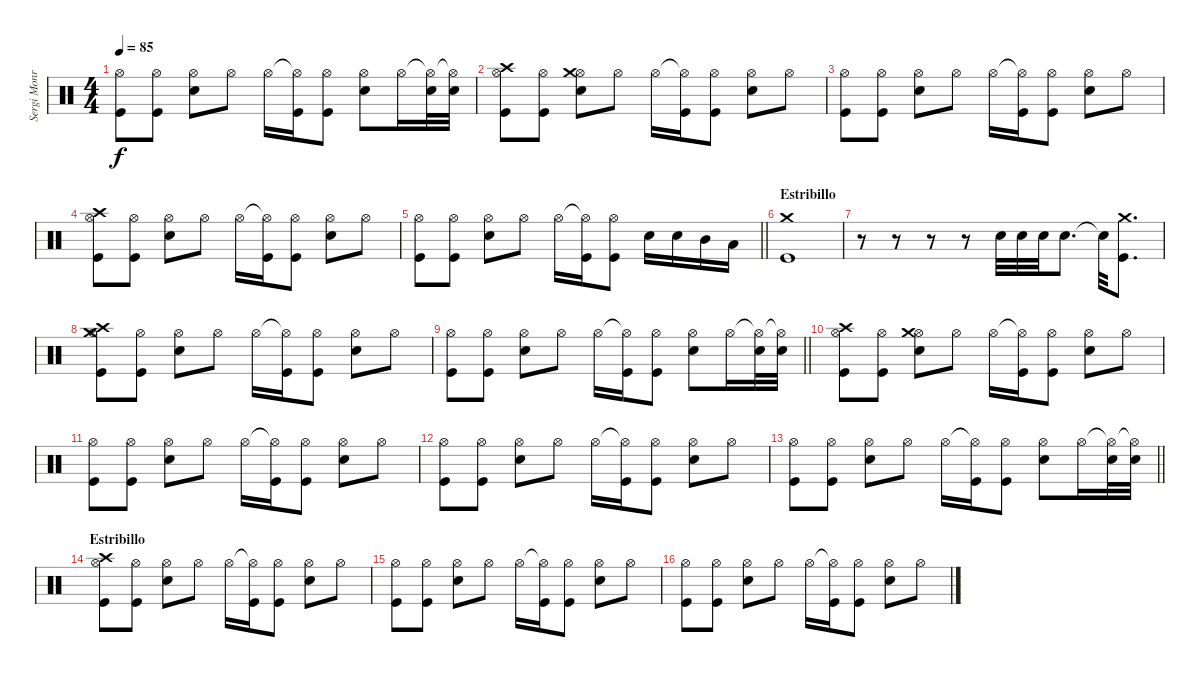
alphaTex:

\track ("Sergi Monroy" "Sergi Monr") {instrument percussion}
\staff {score}
\articulation defaults
\ts (4 4)
\tempo 85
\clef neutral
\ks c
("Hi-Hat (open)" "Kick (hit)").8{dy f} ("Hi-Hat (open)" "Kick (hit)").8 ("Hi-Hat (open)" "Electric Snare (hit)").8 "Hi-Hat (open)".8 "Hi-Hat (open)".16 ("Hi-Hat (open)"{t} "Kick (hit)").16 ("Hi-Hat (open)" "Kick (hit)").8 ("Hi-Hat (open)" "Electric Snare (hit)").8 "Hi-Hat (open)".16 ("Hi-Hat (open)"{t} "Electric Snare (hit)").32 ("Hi-Hat (open)"{t} "Electric Snare (hit)").32 |
("Hi-Hat (open)" "Kick (hit)" "Crash high (hit)").8 ("Hi-Hat (open)" "Kick (hit)").8 ("Hi-Hat (open)" "Electric Snare (hit)" "Crash medium (hit)").8 "Hi-Hat (open)".8 "Hi-Hat (open)".16 ("Hi-Hat (open)"{t} "Kick (hit)").16 ("Hi-Hat (open)" "Kick (hit)").8 ("Hi-Hat (open)" "Electric Snare (hit)").8 "Hi-Hat (open)".8 |
("Hi-Hat (open)" "Kick (hit)").8 ("Hi-Hat (open)" "Kick (hit)").8 ("Hi-Hat (open)" "Electric Snare (hit)").8 "Hi-Hat (open)".8 "Hi-Hat (open)".16 ("Hi-Hat (open)"{t} "Kick (hit)").16 ("Hi-Hat (open)" "Kick (hit)").8 ("Hi-Hat (open)" "Electric Snare (hit)").8 "Hi-Hat (open)".8 |
("Hi-Hat (open)" "Kick (hit)" "Crash high (hit)").8 ("Hi-Hat (open)" "Kick (hit)").8 ("Hi-Hat (open)" "Electric Snare (hit)").8 "Hi-Hat (open)".8 "Hi-Hat (open)".16 ("Hi-Hat (open)"{t} "Kick (hit)").16 ("Hi-Hat (open)" "Kick (hit)").8 ("Hi-Hat (open)" "Electric Snare (hit)").8 "Hi-Hat (open)".8 |
\barLineRight lightlight
("Hi-Hat (open)" "Kick (hit)").8 ("Hi-Hat (open)" "Kick (hit)").8 ("Hi-Hat (open)" "Electric Snare (hit)").8 "Hi-Hat (open)".8 "Hi-Hat (open)".16 ("Hi-Hat (open)"{t} "Kick (hit)").16 ("Hi-Hat (open)" "Kick (hit)").8 "Electric Snare (hit)".16 "Electric Snare (hit)".16 "Mid Tom (hit)".16 "Low Tom (hit)".16 |
\section ("" "Estribillo")
("Kick (hit)" "Crash medium (hit)").1 |
r.8 r.8 r.8 r.8 "Electric Snare (hit)".32 "Electric Snare (hit)".32 "Electric Snare (hit)".32 "Electric Snare (hit)".8{d} "Electric Snare (hit)"{t}.32 ("Kick (hit)" "Crash medium (hit)").8{d} |
("Hi-Hat (open)" "Kick (hit)" "Crash medium (hit)" "Crash high (hit)").8 ("Hi-Hat (open)" "Kick (hit)").8 ("Hi-Hat (open)" "Electric Snare (hit)").8 "Hi-Hat (open)".8 "Hi-Hat (open)".16 ("Hi-Hat (open)"{t} "Kick (hit)").16 ("Hi-Hat (open)" "Kick (hit)").8 ("Hi-Hat (open)" "Electric Snare (hit)").8 "Hi-Hat (open)".8 |
\barLineRight lightlight
("Hi-Hat (open)" "Kick (hit)").8 ("Hi-Hat (open)" "Kick (hit)").8 ("Hi-Hat (open)" "Electric Snare (hit)").8 "Hi-Hat (open)".8 "Hi-Hat (open)".16 ("Hi-Hat (open)"{t} "Kick (hit)").16 ("Hi-Hat (open)" "Kick (hit)").8 ("Hi-Hat (open)" "Electric Snare (hit)").8 "Hi-Hat (open)".16 ("Hi-Hat (open)"{t} "Electric Snare (hit)").32 ("Hi-Hat (open)"{t} "Electric Snare (hit)").32 |
("Hi-Hat (open)" "Kick (hit)" "Crash high (hit)").8 ("Hi-Hat (open)" "Kick (hit)").8 ("Hi-Hat (open)" "Electric Snare (hit)" "Crash medium (hit)").8 "Hi-Hat (open)".8 "Hi-Hat (open)".16 ("Hi-Hat (open)"{t} "Kick (hit)").16 ("Hi-Hat (open)" "Kick (hit)").8 ("Hi-Hat (open)" "Electric Snare (hit)").8 "Hi-Hat (open)".8 |
("Hi-Hat (open)" "Kick (hit)").8 ("Hi-Hat (open)" "Kick (hit)").8 ("Hi-Hat (open)" "Electric Snare (hit)").8 "Hi-Hat (open)".8 "Hi-Hat (open)".16 ("Hi-Hat (open)"{t} "Kick (hit)").16 ("Hi-Hat (open)" "Kick (hit)").8 ("Hi-Hat (open)" "Electric Snare (hit)").8 "Hi-Hat (open)".8 |
("Hi-Hat (open)" "Kick (hit)").8 ("Hi-Hat (open)" "Kick (hit)").8 ("Hi-Hat (open)" "Electric Snare (hit)").8 "Hi-Hat (open)".8 "Hi-Hat (open)".16 ("Hi-Hat (open)"{t} "Kick (hit)").16 ("Hi-Hat (open)" "Kick (hit)").8 ("Hi-Hat (open)" "Electric Snare (hit)").8 "Hi-Hat (open)".8 |
\barLineRight lightlight
("Hi-Hat (open)" "Kick (hit)").8 ("Hi-Hat (open)" "Kick (hit)").8 ("Hi-Hat (open)" "Electric Snare (hit)").8 "Hi-Hat (open)".8 "Hi-Hat (open)".16 ("Hi-Hat (open)"{t} "Kick (hit)").16 ("Hi-Hat (open)" "Kick (hit)").8 ("Hi-Hat (open)" "Electric Snare (hit)").8 "Hi-Hat (open)".16 ("Hi-Hat (open)"{t} "Electric Snare (hit)").32 ("Hi-Hat (open)"{t} "Electric Snare (hit)").32 |
\section ("" "Estribillo")
("Hi-Hat (open)" "Kick (hit)" "Crash high (hit)").8 ("Hi-Hat (open)" "Kick (hit)").8 ("Hi-Hat (open)" "Electric Snare (hit)").8 "Hi-Hat (open)".8 "Hi-Hat (open)".16 ("Hi-Hat (open)"{t} "Kick (hit)").16 ("Hi-Hat (open)" "Kick (hit)").8 ("Hi-Hat (open)" "Electric Snare (hit)").8 "Hi-Hat (open)".8 |
("Hi-Hat (open)" "Kick (hit)").8 ("Hi-Hat (open)" "Kick (hit)").8 ("Hi-Hat (open)" "Electric Snare (hit)").8 "Hi-Hat (open)".8 "Hi-Hat (open)".16 ("Hi-Hat (open)"{t} "Kick (hit)").16 ("Hi-Hat (open)" "Kick (hit)").8 ("Hi-Hat (open)" "Electric Snare (hit)").8 "Hi-Hat (open)".8 |
("Hi-Hat (open)" "Kick (hit)").8 ("Hi-Hat (open)" "Kick (hit)").8 ("Hi-Hat (open)" "Electric Snare (hit)").8 "Hi-Hat (open)".8 "Hi-Hat (open)".16 ("Hi-Hat (open)"{t} "Kick (hit)").16 ("Hi-Hat (open)" "Kick (hit)").8 ("Hi-Hat (open)" "Electric Snare (hit)").8 "Hi-Hat (open)".8
